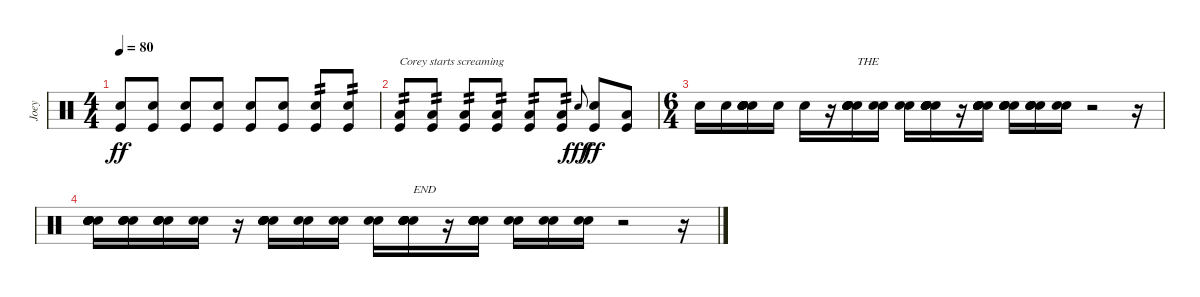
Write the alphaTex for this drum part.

\track ("Joey" "Joey") {instrument percussion}
\staff {score}
\articulation defaults
\ts (4 4)
\tempo 80
\clef neutral
\ks c
("Kick (hit)" "Electric Snare (hit)").8{dy ff} ("Kick (hit)" "Electric Snare (hit)").8 ("Kick (hit)" "Electric Snare (hit)").8 ("Kick (hit)" "Electric Snare (hit)").8 ("Kick (hit)" "Electric Snare (hit)").8 ("Kick (hit)" "Electric Snare (hit)").8 ("Kick (hit)" "Electric Snare (hit)").8{tp 2} ("Kick (hit)" "Electric Snare (hit)").8{tp 2} |
("Kick (hit)" "Low Floor Tom (hit)").8{txt "Corey starts screaming" tp 2} ("Kick (hit)" "Low Floor Tom (hit)").8{tp 2} ("Kick (hit)" "Low Floor Tom (hit)").8{tp 2} ("Kick (hit)" "Low Floor Tom (hit)").8{tp 2} ("Kick (hit)" "Low Floor Tom (hit)").8{tp 2} ("Kick (hit)" "Low Floor Tom (hit)").8{tp 2} "Electric Snare (hit)"{h}.8{gr onbeat dy fff} ("Kick (hit)" "Electric Snare (hit)").8{dy ff} ("Kick (hit)" "Low Floor Tom (hit)").8 |
\ts (6 4)
"Snare (hit)".16 "Snare (hit)".16 ("Snare (hit)" "Snare (hit)" "Snare (hit)" "Snare (hit)" "Snare (hit)" "Snare (hit)").16 "Snare (hit)".16 "Snare (hit)".16 r.16 ("Snare (hit)" "Snare (hit)" "Snare (hit)" "Snare (hit)" "Snare (hit)" "Snare (hit)").16{txt "THE"} ("Snare (hit)" "Snare (hit)").16 ("Snare (hit)" "Snare (hit)").16 ("Snare (hit)" "Snare (hit)" "Snare (hit)" "Snare (hit)" "Snare (hit)" "Snare (hit)").16 r.16 ("Snare (hit)" "Snare (hit)" "Snare (hit)" "Snare (hit)" "Snare (hit)" "Snare (hit)").16 ("Snare (hit)" "Snare (hit)" "Snare (hit)" "Snare (hit)").16 ("Snare (hit)" "Snare (hit)" "Snare (hit)" "Snare (hit)").16 ("Snare (hit)" "Snare (hit)").16 r.2 r.16 |
("Snare (hit)" "Snare (hit)" "Snare (hit)" "Snare (hit)" "Snare (hit)" "Snare (hit)").16 ("Snare (hit)" "Snare (hit)" "Snare (hit)" "Snare (hit)").16 ("Snare (hit)" "Snare (hit)" "Snare (hit)" "Snare (hit)").16 ("Snare (hit)" "Snare (hit)").16 r.16 ("Snare (hit)" "Snare (hit)" "Snare (hit)" "Snare (hit)" "Snare (hit)" "Snare (hit)").16 ("Snare (hit)" "Snare (hit)").16 ("Snare (hit)" "Snare (hit)").16 ("Snare (hit)" "Snare (hit)").16 ("Snare (hit)" "Snare (hit)" "Snare (hit)" "Snare (hit)" "Snare (hit)" "Snare (hit)").16{txt "END"} r.16 ("Snare (hit)" "Snare (hit)" "Snare (hit)" "Snare (hit)" "Snare (hit)" "Snare (hit)").16 ("Snare (hit)" "Snare (hit)").16 ("Snare (hit)" "Snare (hit)").16 ("Snare (hit)" "Snare (hit)").16 r.2 r.16
